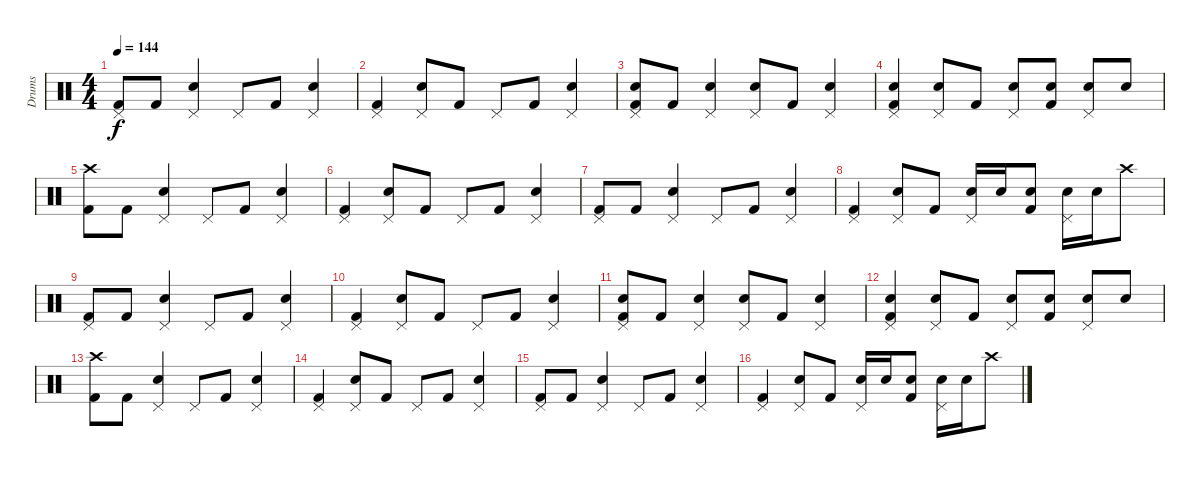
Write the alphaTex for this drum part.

\track ("Drums" "Drums") {instrument percussion}
\staff {score}
\articulation defaults
\ts (4 4)
\tempo 144
\clef neutral
\ks c
("Pedal Hi-Hat (hit)" "Kick (hit) 2").8{dy f} "Kick (hit) 2".8 ("Pedal Hi-Hat (hit)" "Electric Snare (hit)").4 "Pedal Hi-Hat (hit)".8 "Kick (hit) 2".8 ("Pedal Hi-Hat (hit)" "Electric Snare (hit)").4 |
("Kick (hit) 2" "Pedal Hi-Hat (hit)").4 ("Electric Snare (hit)" "Pedal Hi-Hat (hit)").8 "Kick (hit) 2".8 "Pedal Hi-Hat (hit)".8 "Kick (hit) 2".8 ("Electric Snare (hit)" "Pedal Hi-Hat (hit)").4 |
("Electric Snare (hit)" "Pedal Hi-Hat (hit)" "Kick (hit) 2").8 "Kick (hit) 2".8 ("Pedal Hi-Hat (hit)" "Electric Snare (hit)").4 ("Electric Snare (hit)" "Pedal Hi-Hat (hit)").8 "Kick (hit) 2".8 ("Pedal Hi-Hat (hit)" "Electric Snare (hit)").4 |
("Electric Snare (hit)" "Kick (hit) 2" "Pedal Hi-Hat (hit)").4 ("Electric Snare (hit)" "Pedal Hi-Hat (hit)").8 "Kick (hit) 2".8 ("Electric Snare (hit)" "Pedal Hi-Hat (hit)").8 ("Electric Snare (hit)" "Kick (hit) 2").8 ("Electric Snare (hit)" "Pedal Hi-Hat (hit)").8 "Electric Snare (hit)".8 |
("Crash high (hit)" "Kick (hit) 2").8 "Kick (hit) 2".8 ("Pedal Hi-Hat (hit)" "Electric Snare (hit)").4 "Pedal Hi-Hat (hit)".8 "Kick (hit) 2".8 ("Pedal Hi-Hat (hit)" "Electric Snare (hit)").4 |
("Kick (hit) 2" "Pedal Hi-Hat (hit)").4 ("Electric Snare (hit)" "Pedal Hi-Hat (hit)").8 "Kick (hit) 2".8 "Pedal Hi-Hat (hit)".8 "Kick (hit) 2".8 ("Electric Snare (hit)" "Pedal Hi-Hat (hit)").4 |
("Pedal Hi-Hat (hit)" "Kick (hit) 2").8 "Kick (hit) 2".8 ("Pedal Hi-Hat (hit)" "Electric Snare (hit)").4 "Pedal Hi-Hat (hit)".8 "Kick (hit) 2".8 ("Pedal Hi-Hat (hit)" "Electric Snare (hit)").4 |
("Kick (hit) 2" "Pedal Hi-Hat (hit)").4 ("Electric Snare (hit)" "Pedal Hi-Hat (hit)").8 "Kick (hit) 2".8 ("Electric Snare (hit)" "Pedal Hi-Hat (hit)").16 "Electric Snare (hit)".16 ("Electric Snare (hit)" "Kick (hit) 2").8 ("Electric Snare (hit)" "Pedal Hi-Hat (hit)").16 "Electric Snare (hit)".16 "Crash high (hit)".8 |
("Pedal Hi-Hat (hit)" "Kick (hit) 2").8 "Kick (hit) 2".8 ("Pedal Hi-Hat (hit)" "Electric Snare (hit)").4 "Pedal Hi-Hat (hit)".8 "Kick (hit) 2".8 ("Pedal Hi-Hat (hit)" "Electric Snare (hit)").4 |
("Kick (hit) 2" "Pedal Hi-Hat (hit)").4 ("Electric Snare (hit)" "Pedal Hi-Hat (hit)").8 "Kick (hit) 2".8 "Pedal Hi-Hat (hit)".8 "Kick (hit) 2".8 ("Electric Snare (hit)" "Pedal Hi-Hat (hit)").4 |
("Electric Snare (hit)" "Pedal Hi-Hat (hit)" "Kick (hit) 2").8 "Kick (hit) 2".8 ("Pedal Hi-Hat (hit)" "Electric Snare (hit)").4 ("Electric Snare (hit)" "Pedal Hi-Hat (hit)").8 "Kick (hit) 2".8 ("Pedal Hi-Hat (hit)" "Electric Snare (hit)").4 |
("Electric Snare (hit)" "Kick (hit) 2" "Pedal Hi-Hat (hit)").4 ("Electric Snare (hit)" "Pedal Hi-Hat (hit)").8 "Kick (hit) 2".8 ("Electric Snare (hit)" "Pedal Hi-Hat (hit)").8 ("Electric Snare (hit)" "Kick (hit) 2").8 ("Electric Snare (hit)" "Pedal Hi-Hat (hit)").8 "Electric Snare (hit)".8 |
("Crash high (hit)" "Kick (hit) 2").8 "Kick (hit) 2".8 ("Pedal Hi-Hat (hit)" "Electric Snare (hit)").4 "Pedal Hi-Hat (hit)".8 "Kick (hit) 2".8 ("Pedal Hi-Hat (hit)" "Electric Snare (hit)").4 |
("Kick (hit) 2" "Pedal Hi-Hat (hit)").4 ("Electric Snare (hit)" "Pedal Hi-Hat (hit)").8 "Kick (hit) 2".8 "Pedal Hi-Hat (hit)".8 "Kick (hit) 2".8 ("Electric Snare (hit)" "Pedal Hi-Hat (hit)").4 |
("Pedal Hi-Hat (hit)" "Kick (hit) 2").8 "Kick (hit) 2".8 ("Pedal Hi-Hat (hit)" "Electric Snare (hit)").4 "Pedal Hi-Hat (hit)".8 "Kick (hit) 2".8 ("Pedal Hi-Hat (hit)" "Electric Snare (hit)").4 |
("Kick (hit) 2" "Pedal Hi-Hat (hit)").4 ("Electric Snare (hit)" "Pedal Hi-Hat (hit)").8 "Kick (hit) 2".8 ("Electric Snare (hit)" "Pedal Hi-Hat (hit)").16 "Electric Snare (hit)".16 ("Electric Snare (hit)" "Kick (hit) 2").8 ("Electric Snare (hit)" "Pedal Hi-Hat (hit)").16 "Electric Snare (hit)".16 "Crash high (hit)".8
